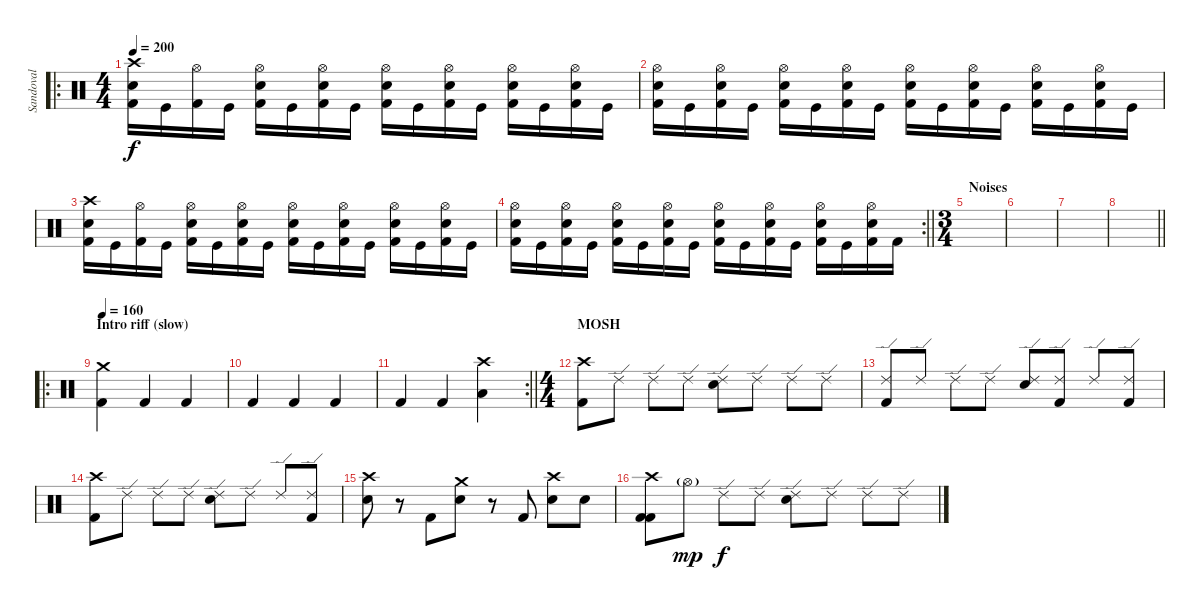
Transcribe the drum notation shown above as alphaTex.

\track ("Sandoval" "Sandoval") {instrument percussion}
\staff {score}
\articulation defaults
\ro
\ts (4 4)
\tempo 200
\clef neutral
\ks c
("Crash high (hit)" "Electric Snare (hit)" "Kick (hit) 2").16{dy f} "Kick (hit)".16 ("Hi-Hat (open)" "Kick (hit) 2").16 "Kick (hit)".16 ("Hi-Hat (open)" "Electric Snare (hit)" "Kick (hit) 2").16 "Kick (hit)".16 ("Hi-Hat (open)" "Electric Snare (hit)" "Kick (hit) 2").16 "Kick (hit)".16 ("Hi-Hat (open)" "Electric Snare (hit)" "Kick (hit) 2").16 "Kick (hit)".16 ("Hi-Hat (open)" "Electric Snare (hit)" "Kick (hit) 2").16 "Kick (hit)".16 ("Hi-Hat (open)" "Electric Snare (hit)" "Kick (hit) 2").16 "Kick (hit)".16 ("Hi-Hat (open)" "Electric Snare (hit)" "Kick (hit) 2").16 "Kick (hit)".16 |
("Hi-Hat (open)" "Electric Snare (hit)" "Kick (hit) 2").16 "Kick (hit)".16 ("Hi-Hat (open)" "Electric Snare (hit)" "Kick (hit) 2").16 "Kick (hit)".16 ("Hi-Hat (open)" "Electric Snare (hit)" "Kick (hit) 2").16 "Kick (hit)".16 ("Hi-Hat (open)" "Electric Snare (hit)" "Kick (hit) 2").16 "Kick (hit)".16 ("Hi-Hat (open)" "Electric Snare (hit)" "Kick (hit) 2").16 "Kick (hit)".16 ("Hi-Hat (open)" "Electric Snare (hit)" "Kick (hit) 2").16 "Kick (hit)".16 ("Hi-Hat (open)" "Electric Snare (hit)" "Kick (hit) 2").16 "Kick (hit)".16 ("Hi-Hat (open)" "Electric Snare (hit)" "Kick (hit) 2").16 "Kick (hit)".16 |
("Crash high (hit)" "Electric Snare (hit)" "Kick (hit) 2").16 "Kick (hit)".16 ("Hi-Hat (open)" "Kick (hit) 2").16 "Kick (hit)".16 ("Hi-Hat (open)" "Electric Snare (hit)" "Kick (hit) 2").16 "Kick (hit)".16 ("Hi-Hat (open)" "Electric Snare (hit)" "Kick (hit) 2").16 "Kick (hit)".16 ("Hi-Hat (open)" "Electric Snare (hit)" "Kick (hit) 2").16 "Kick (hit)".16 ("Hi-Hat (open)" "Electric Snare (hit)" "Kick (hit) 2").16 "Kick (hit)".16 ("Hi-Hat (open)" "Electric Snare (hit)" "Kick (hit) 2").16 "Kick (hit)".16 ("Hi-Hat (open)" "Electric Snare (hit)" "Kick (hit) 2").16 "Kick (hit)".16 |
\rc 2
\barLineRight lightlight
("Hi-Hat (open)" "Electric Snare (hit)" "Kick (hit) 2").16 "Kick (hit)".16 ("Hi-Hat (open)" "Electric Snare (hit)" "Kick (hit) 2").16 "Kick (hit)".16 ("Hi-Hat (open)" "Electric Snare (hit)" "Kick (hit) 2").16 "Kick (hit)".16 ("Hi-Hat (open)" "Electric Snare (hit)" "Kick (hit) 2").16 "Kick (hit)".16 ("Hi-Hat (open)" "Electric Snare (hit)" "Kick (hit) 2").16 "Kick (hit)".16 ("Hi-Hat (open)" "Electric Snare (hit)" "Kick (hit) 2").16 "Kick (hit)".16 ("Hi-Hat (open)" "Electric Snare (hit)" "Kick (hit) 2").16 "Kick (hit)".16 ("Hi-Hat (open)" "Electric Snare (hit)" "Kick (hit) 2").16 "Kick (hit) 2".16 |
\ts (3 4)
\section ("" "Noises")
|
|
|
\barLineRight lightlight
|
\ro
\section ("" "Intro riff (slow)")
\tempo 160
("Crash medium (hit)" "Kick (hit) 2").4 "Kick (hit) 2".4 "Kick (hit) 2".4 |
"Kick (hit) 2".4 "Kick (hit) 2".4 "Kick (hit) 2".4 |
\rc 2
\barLineRight lightlight "Kick (hit) 2".4 "Kick (hit) 2".4
("Crash high (hit)" "Low Floor Tom (hit)").4 |
\ts (4 4)
\section ("" "MOSH")
("Crash high (hit)" "Kick (hit) 2").8 "Ride (edge) 2".8 "Ride (edge) 2".8 "Ride (edge) 2".8 ("Ride (edge) 2" "Electric Snare (hit)").8 "Ride (edge) 2".8 "Ride (edge) 2".8 "Ride (edge) 2".8 |
("Ride (edge) 2" "Kick (hit) 2").8 "Ride (edge) 2".8 "Ride (edge) 2".8 "Ride (edge) 2".8 ("Ride (edge) 2" "Electric Snare (hit)").8 ("Ride (edge) 2" "Kick (hit) 2").8 "Ride (edge) 2".8 ("Ride (edge) 2" "Kick (hit) 2").8 |
("Crash high (hit)" "Kick (hit) 2").8 "Ride (edge) 2".8 "Ride (edge) 2".8 "Ride (edge) 2".8 ("Ride (edge) 2" "Electric Snare (hit)").8 "Ride (edge) 2".8 "Ride (edge) 2".8 ("Ride (edge) 2" "Kick (hit) 2").8 |
("Crash high (hit)" "Electric Snare (hit)").8 r.8 "Kick (hit) 2".8 ("Crash medium (hit)" "Electric Snare (hit)").8 r.8 "Kick (hit) 2".8 ("Crash high (hit)" "Electric Snare (hit)").8 "Electric Snare (hit)".8 |
("Crash high (hit)" "Kick (hit) 2" "Kick (hit) 2").8 "Hi-Hat (open)"{g}.8{dy mp} "Ride (edge) 2".8{dy f} "Ride (edge) 2".8 ("Ride (edge) 2" "Electric Snare (hit)").8 "Ride (edge) 2".8 "Ride (edge) 2".8 "Ride (edge) 2".8
